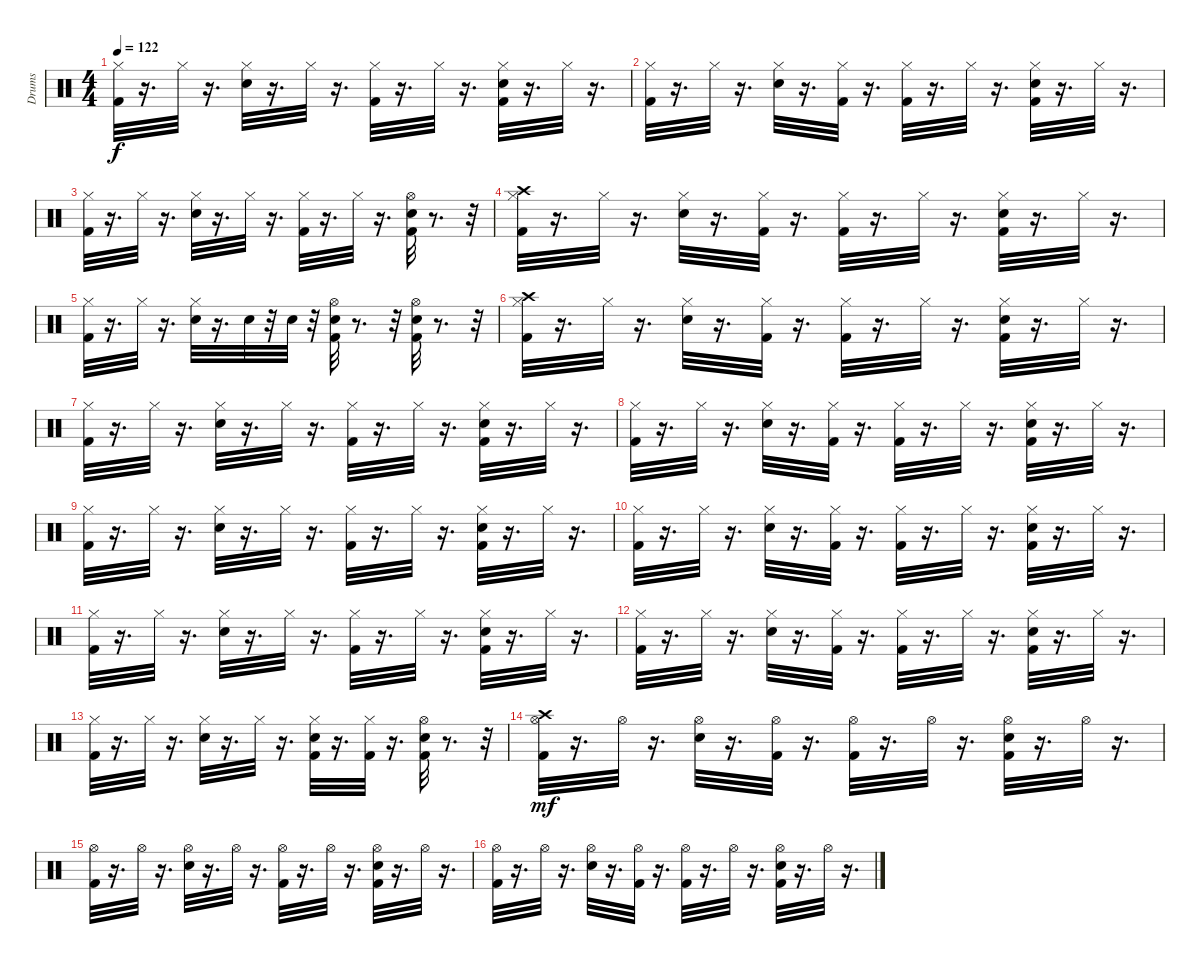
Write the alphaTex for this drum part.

\track ("Drums" "Drums") {instrument percussion}
\staff {score}
\articulation defaults
\ts (4 4)
\tempo 122
\clef neutral
\ks c
("Kick (hit) 2" "Hi-Hat (closed)").32{dy f} r.16{d} "Hi-Hat (closed)".32 r.16{d} ("Snare (hit) 2" "Hi-Hat (closed)").32 r.16{d} "Hi-Hat (closed)".32 r.16{d} ("Kick (hit) 2" "Hi-Hat (closed)").32 r.16{d} "Hi-Hat (closed)".32 r.16{d} ("Kick (hit) 2" "Snare (hit) 2" "Hi-Hat (closed)").32 r.16{d} "Hi-Hat (closed)".32 r.16{d} |
("Kick (hit) 2" "Hi-Hat (closed)").32 r.16{d} "Hi-Hat (closed)".32 r.16{d} ("Snare (hit) 2" "Hi-Hat (closed)").32 r.16{d} ("Kick (hit) 2" "Hi-Hat (closed)").32 r.16{d} ("Kick (hit) 2" "Hi-Hat (closed)").32 r.16{d} "Hi-Hat (closed)".32 r.16{d} ("Kick (hit) 2" "Snare (hit) 2" "Hi-Hat (closed)").32 r.16{d} "Hi-Hat (closed)".32 r.16{d} |
("Kick (hit) 2" "Hi-Hat (closed)").32 r.16{d} "Hi-Hat (closed)".32 r.16{d} ("Snare (hit) 2" "Hi-Hat (closed)").32 r.16{d} "Hi-Hat (closed)".32 r.16{d} ("Kick (hit) 2" "Hi-Hat (closed)").32 r.16{d} "Hi-Hat (closed)".32 r.16{d} ("Kick (hit) 2" "Snare (hit) 2" "Hi-Hat (open)").32 r.8{d} r.32 |
("Kick (hit) 2" "Hi-Hat (closed)" "Crash high (hit)").32 r.16{d} "Hi-Hat (closed)".32 r.16{d} ("Snare (hit) 2" "Hi-Hat (closed)").32 r.16{d} ("Kick (hit) 2" "Hi-Hat (closed)").32 r.16{d} ("Kick (hit) 2" "Hi-Hat (closed)").32 r.16{d} "Hi-Hat (closed)".32 r.16{d} ("Kick (hit) 2" "Snare (hit) 2" "Hi-Hat (closed)").32 r.16{d} "Hi-Hat (closed)".32 r.16{d} |
("Kick (hit) 2" "Hi-Hat (closed)").32 r.16{d} "Hi-Hat (closed)".32 r.16{d} ("Snare (hit) 2" "Hi-Hat (closed)").32 r.16{d} "Snare (hit) 2".32 r.32 "Snare (hit) 2".32 r.32 ("Kick (hit) 2" "Snare (hit) 2" "Hi-Hat (open)").32 r.8{d} r.32 ("Kick (hit) 2" "Snare (hit) 2" "Hi-Hat (open)").32 r.8{d} r.32 |
("Kick (hit) 2" "Hi-Hat (closed)" "Crash high (hit)").32 r.16{d} "Hi-Hat (closed)".32 r.16{d} ("Snare (hit) 2" "Hi-Hat (closed)").32 r.16{d} ("Kick (hit) 2" "Hi-Hat (closed)").32 r.16{d} ("Kick (hit) 2" "Hi-Hat (closed)").32 r.16{d} "Hi-Hat (closed)".32 r.16{d} ("Kick (hit) 2" "Snare (hit) 2" "Hi-Hat (closed)").32 r.16{d} "Hi-Hat (closed)".32 r.16{d} |
("Kick (hit) 2" "Hi-Hat (closed)").32 r.16{d} "Hi-Hat (closed)".32 r.16{d} ("Snare (hit) 2" "Hi-Hat (closed)").32 r.16{d} "Hi-Hat (closed)".32 r.16{d} ("Kick (hit) 2" "Hi-Hat (closed)").32 r.16{d} "Hi-Hat (closed)".32 r.16{d} ("Kick (hit) 2" "Snare (hit) 2" "Hi-Hat (closed)").32 r.16{d} "Hi-Hat (closed)".32 r.16{d} |
("Kick (hit) 2" "Hi-Hat (closed)").32 r.16{d} "Hi-Hat (closed)".32 r.16{d} ("Snare (hit) 2" "Hi-Hat (closed)").32 r.16{d} ("Kick (hit) 2" "Hi-Hat (closed)").32 r.16{d} ("Kick (hit) 2" "Hi-Hat (closed)").32 r.16{d} "Hi-Hat (closed)".32 r.16{d} ("Kick (hit) 2" "Snare (hit) 2" "Hi-Hat (closed)").32 r.16{d} "Hi-Hat (closed)".32 r.16{d} |
("Kick (hit) 2" "Hi-Hat (closed)").32 r.16{d} "Hi-Hat (closed)".32 r.16{d} ("Snare (hit) 2" "Hi-Hat (closed)").32 r.16{d} "Hi-Hat (closed)".32 r.16{d} ("Kick (hit) 2" "Hi-Hat (closed)").32 r.16{d} "Hi-Hat (closed)".32 r.16{d} ("Kick (hit) 2" "Snare (hit) 2" "Hi-Hat (closed)").32 r.16{d} "Hi-Hat (closed)".32 r.16{d} |
("Kick (hit) 2" "Hi-Hat (closed)").32 r.16{d} "Hi-Hat (closed)".32 r.16{d} ("Snare (hit) 2" "Hi-Hat (closed)").32 r.16{d} ("Kick (hit) 2" "Hi-Hat (closed)").32 r.16{d} ("Kick (hit) 2" "Hi-Hat (closed)").32 r.16{d} "Hi-Hat (closed)".32 r.16{d} ("Kick (hit) 2" "Snare (hit) 2" "Hi-Hat (closed)").32 r.16{d} "Hi-Hat (closed)".32 r.16{d} |
("Kick (hit) 2" "Hi-Hat (closed)").32 r.16{d} "Hi-Hat (closed)".32 r.16{d} ("Snare (hit) 2" "Hi-Hat (closed)").32 r.16{d} "Hi-Hat (closed)".32 r.16{d} ("Kick (hit) 2" "Hi-Hat (closed)").32 r.16{d} "Hi-Hat (closed)".32 r.16{d} ("Kick (hit) 2" "Snare (hit) 2" "Hi-Hat (closed)").32 r.16{d} "Hi-Hat (closed)".32 r.16{d} |
("Kick (hit) 2" "Hi-Hat (closed)").32 r.16{d} "Hi-Hat (closed)".32 r.16{d} ("Snare (hit) 2" "Hi-Hat (closed)").32 r.16{d} ("Kick (hit) 2" "Hi-Hat (closed)").32 r.16{d} ("Kick (hit) 2" "Hi-Hat (closed)").32 r.16{d} "Hi-Hat (closed)".32 r.16{d} ("Kick (hit) 2" "Snare (hit) 2" "Hi-Hat (closed)").32 r.16{d} "Hi-Hat (closed)".32 r.16{d} |
("Kick (hit) 2" "Hi-Hat (closed)").32 r.16{d} "Hi-Hat (closed)".32 r.16{d} ("Snare (hit) 2" "Hi-Hat (closed)").32 r.16{d} "Hi-Hat (closed)".32 r.16{d} ("Kick (hit) 2" "Snare (hit) 2" "Hi-Hat (closed)").32 r.16{d} ("Kick (hit) 2" "Hi-Hat (closed)").32 r.16{d} ("Kick (hit) 2" "Snare (hit) 2" "Hi-Hat (open)").32 r.8{d} r.32 |
("Kick (hit) 2" "Hi-Hat (open)" "Crash high (hit)").32{dy mf} r.16{d} "Hi-Hat (open)".32 r.16{d} ("Snare (hit) 2" "Hi-Hat (open)").32 r.16{d} ("Kick (hit) 2" "Hi-Hat (open)").32 r.16{d} ("Kick (hit) 2" "Hi-Hat (open)").32 r.16{d} "Hi-Hat (open)".32 r.16{d} ("Kick (hit) 2" "Snare (hit) 2" "Hi-Hat (open)").32 r.16{d} "Hi-Hat (open)".32 r.16{d} |
("Kick (hit) 2" "Hi-Hat (open)").32 r.16{d} "Hi-Hat (open)".32 r.16{d} ("Snare (hit) 2" "Hi-Hat (open)").32 r.16{d} "Hi-Hat (open)".32 r.16{d} ("Kick (hit) 2" "Hi-Hat (open)").32 r.16{d} "Hi-Hat (open)".32 r.16{d} ("Kick (hit) 2" "Snare (hit) 2" "Hi-Hat (open)").32 r.16{d} "Hi-Hat (open)".32 r.16{d} |
("Kick (hit) 2" "Hi-Hat (open)").32 r.16{d} "Hi-Hat (open)".32 r.16{d} ("Snare (hit) 2" "Hi-Hat (open)").32 r.16{d} ("Kick (hit) 2" "Hi-Hat (open)").32 r.16{d} ("Kick (hit) 2" "Hi-Hat (open)").32 r.16{d} "Hi-Hat (open)".32 r.16{d} ("Kick (hit) 2" "Snare (hit) 2" "Hi-Hat (open)").32 r.16{d} "Hi-Hat (open)".32 r.16{d}
